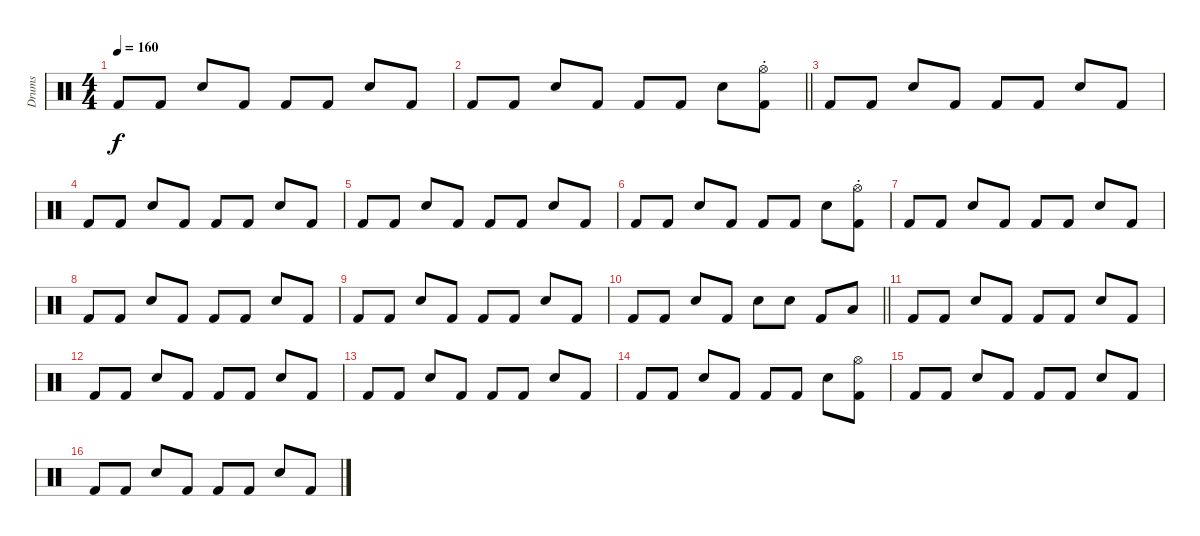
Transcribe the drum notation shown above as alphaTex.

\track ("Drums" "Drums") {instrument percussion}
\staff {score}
\articulation defaults
\ts (4 4)
\tempo 160
\clef neutral
\ks c "Kick (hit) 2".8{dy f} "Kick (hit) 2".8 "Snare (hit) 2".8 "Kick (hit) 2".8 "Kick (hit) 2".8 "Kick (hit) 2".8 "Snare (hit) 2".8 "Kick (hit) 2".8
|
\barLineRight lightlight "Kick (hit) 2".8 "Kick (hit) 2".8 "Snare (hit) 2".8 "Kick (hit) 2".8 "Kick (hit) 2".8 "Kick (hit) 2".8 "Snare (hit) 2".8
("Hi-Hat (open)"{st} "Kick (hit) 2").8 |
"Kick (hit) 2".8 "Kick (hit) 2".8 "Snare (hit) 2".8 "Kick (hit) 2".8 "Kick (hit) 2".8 "Kick (hit) 2".8 "Snare (hit) 2".8 "Kick (hit) 2".8 |
"Kick (hit) 2".8 "Kick (hit) 2".8 "Snare (hit) 2".8 "Kick (hit) 2".8 "Kick (hit) 2".8 "Kick (hit) 2".8 "Snare (hit) 2".8 "Kick (hit) 2".8 |
"Kick (hit) 2".8 "Kick (hit) 2".8 "Snare (hit) 2".8 "Kick (hit) 2".8 "Kick (hit) 2".8 "Kick (hit) 2".8 "Snare (hit) 2".8 "Kick (hit) 2".8 |
"Kick (hit) 2".8 "Kick (hit) 2".8 "Snare (hit) 2".8 "Kick (hit) 2".8 "Kick (hit) 2".8 "Kick (hit) 2".8 "Snare (hit) 2".8 ("Hi-Hat (open)"{st} "Kick (hit) 2").8 |
"Kick (hit) 2".8 "Kick (hit) 2".8 "Snare (hit) 2".8 "Kick (hit) 2".8 "Kick (hit) 2".8 "Kick (hit) 2".8 "Snare (hit) 2".8 "Kick (hit) 2".8 |
"Kick (hit) 2".8 "Kick (hit) 2".8 "Snare (hit) 2".8 "Kick (hit) 2".8 "Kick (hit) 2".8 "Kick (hit) 2".8 "Snare (hit) 2".8 "Kick (hit) 2".8 |
"Kick (hit) 2".8 "Kick (hit) 2".8 "Snare (hit) 2".8 "Kick (hit) 2".8 "Kick (hit) 2".8 "Kick (hit) 2".8 "Snare (hit) 2".8 "Kick (hit) 2".8 |
\barLineRight lightlight "Kick (hit) 2".8 "Kick (hit) 2".8 "Snare (hit) 2".8 "Kick (hit) 2".8 "Snare (hit) 2".8 "Snare (hit) 2".8 "Kick (hit) 2".8 "Low Floor Tom (hit)".8
|
"Kick (hit) 2".8 "Kick (hit) 2".8 "Snare (hit) 2".8 "Kick (hit) 2".8 "Kick (hit) 2".8 "Kick (hit) 2".8 "Snare (hit) 2".8 "Kick (hit) 2".8 |
"Kick (hit) 2".8 "Kick (hit) 2".8 "Snare (hit) 2".8 "Kick (hit) 2".8 "Kick (hit) 2".8 "Kick (hit) 2".8 "Snare (hit) 2".8 "Kick (hit) 2".8 |
"Kick (hit) 2".8 "Kick (hit) 2".8 "Snare (hit) 2".8 "Kick (hit) 2".8 "Kick (hit) 2".8 "Kick (hit) 2".8 "Snare (hit) 2".8 "Kick (hit) 2".8 |
"Kick (hit) 2".8 "Kick (hit) 2".8 "Snare (hit) 2".8 "Kick (hit) 2".8 "Kick (hit) 2".8 "Kick (hit) 2".8 "Snare (hit) 2".8 ("Hi-Hat (open)" "Kick (hit) 2").8 |
"Kick (hit) 2".8 "Kick (hit) 2".8 "Snare (hit) 2".8 "Kick (hit) 2".8 "Kick (hit) 2".8 "Kick (hit) 2".8 "Snare (hit) 2".8 "Kick (hit) 2".8 |
"Kick (hit) 2".8 "Kick (hit) 2".8 "Snare (hit) 2".8 "Kick (hit) 2".8 "Kick (hit) 2".8 "Kick (hit) 2".8 "Snare (hit) 2".8 "Kick (hit) 2".8
